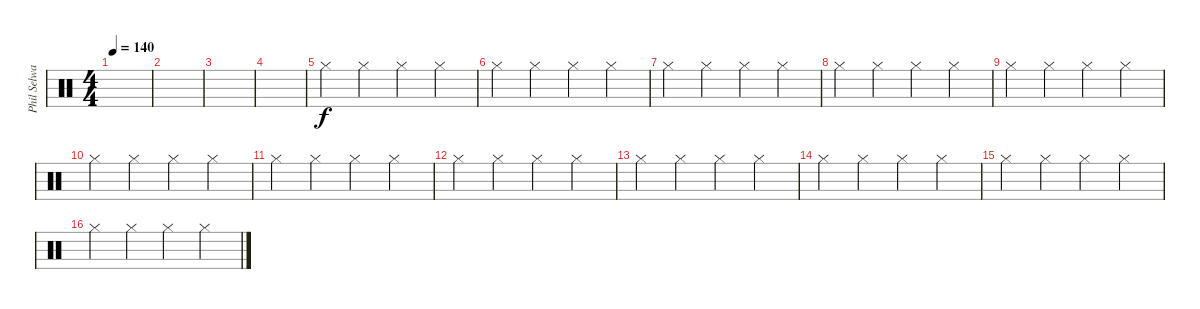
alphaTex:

\track ("Phil Selway" "Phil Selwa") {instrument percussion}
\staff {score}
\articulation defaults
\ts (4 4)
\tempo 140
\clef neutral
\ks c
|
|
|
|
"Hi-Hat (closed)".4 "Hi-Hat (closed)".4 "Hi-Hat (closed)".4 "Hi-Hat (closed)".4 |
"Hi-Hat (closed)".4 "Hi-Hat (closed)".4 "Hi-Hat (closed)".4 "Hi-Hat (closed)".4 |
"Hi-Hat (closed)".4 "Hi-Hat (closed)".4 "Hi-Hat (closed)".4 "Hi-Hat (closed)".4 |
"Hi-Hat (closed)".4 "Hi-Hat (closed)".4 "Hi-Hat (closed)".4 "Hi-Hat (closed)".4 |
"Hi-Hat (closed)".4 "Hi-Hat (closed)".4 "Hi-Hat (closed)".4 "Hi-Hat (closed)".4 |
"Hi-Hat (closed)".4 "Hi-Hat (closed)".4 "Hi-Hat (closed)".4 "Hi-Hat (closed)".4 |
"Hi-Hat (closed)".4 "Hi-Hat (closed)".4 "Hi-Hat (closed)".4 "Hi-Hat (closed)".4 |
"Hi-Hat (closed)".4 "Hi-Hat (closed)".4 "Hi-Hat (closed)".4 "Hi-Hat (closed)".4 |
"Hi-Hat (closed)".4 "Hi-Hat (closed)".4 "Hi-Hat (closed)".4 "Hi-Hat (closed)".4 |
"Hi-Hat (closed)".4 "Hi-Hat (closed)".4 "Hi-Hat (closed)".4 "Hi-Hat (closed)".4 |
"Hi-Hat (closed)".4 "Hi-Hat (closed)".4 "Hi-Hat (closed)".4 "Hi-Hat (closed)".4 |
"Hi-Hat (closed)".4 "Hi-Hat (closed)".4 "Hi-Hat (closed)".4 "Hi-Hat (closed)".4
